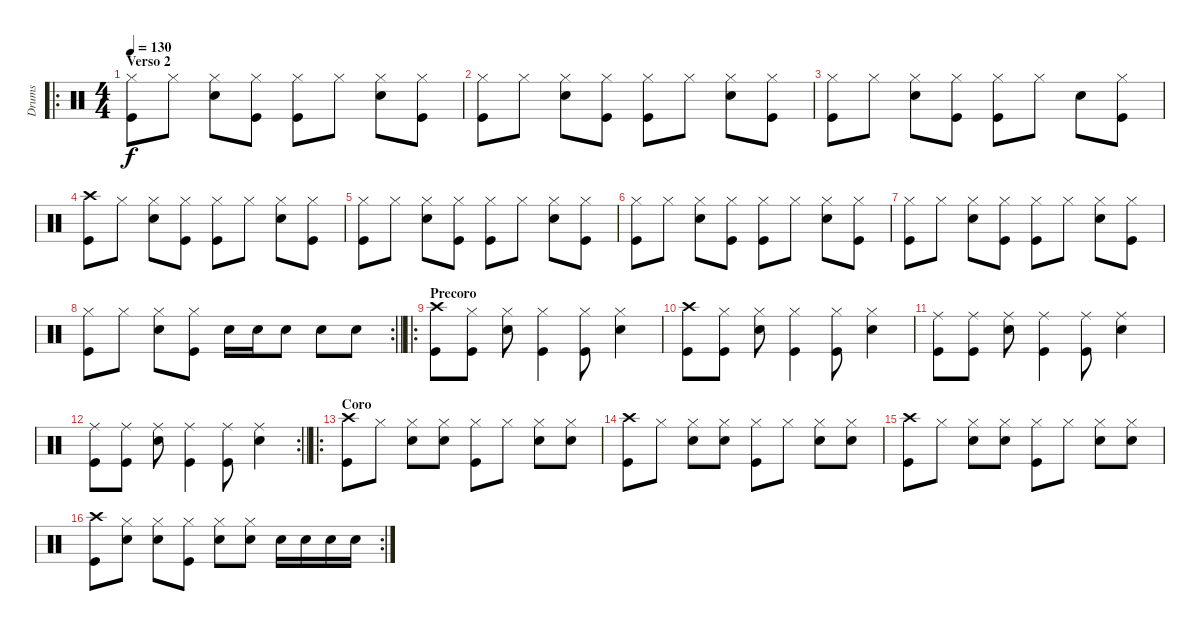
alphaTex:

\track ("Drums" "Drums") {instrument percussion}
\staff {score}
\articulation defaults
\ro
\ts (4 4)
\section ("" "Verso 2")
\tempo 130
\clef neutral
\ks c
("Kick (hit)" "Hi-Hat (closed)").8{dy f} "Hi-Hat (closed)".8 ("Snare (hit) 2" "Hi-Hat (closed)").8 ("Kick (hit)" "Hi-Hat (closed)").8 ("Kick (hit)" "Hi-Hat (closed)").8 "Hi-Hat (closed)".8 ("Snare (hit) 2" "Hi-Hat (closed)").8 ("Kick (hit)" "Hi-Hat (closed)").8 |
("Kick (hit)" "Hi-Hat (closed)").8 "Hi-Hat (closed)".8 ("Snare (hit) 2" "Hi-Hat (closed)").8 ("Kick (hit)" "Hi-Hat (closed)").8 ("Kick (hit)" "Hi-Hat (closed)").8 "Hi-Hat (closed)".8 ("Snare (hit) 2" "Hi-Hat (closed)").8 ("Kick (hit)" "Hi-Hat (closed)").8 |
("Kick (hit)" "Hi-Hat (closed)").8 "Hi-Hat (closed)".8 ("Snare (hit) 2" "Hi-Hat (closed)").8 ("Kick (hit)" "Hi-Hat (closed)").8 ("Kick (hit)" "Hi-Hat (closed)").8 "Hi-Hat (closed)".8 "Snare (hit) 2".8 ("Kick (hit)" "Hi-Hat (closed)").8 |
("Kick (hit)" "Crash high (hit)").8 "Hi-Hat (closed)".8 ("Snare (hit) 2" "Hi-Hat (closed)").8 ("Kick (hit)" "Hi-Hat (closed)").8 ("Kick (hit)" "Hi-Hat (closed)").8 "Hi-Hat (closed)".8 ("Snare (hit) 2" "Hi-Hat (closed)").8 ("Kick (hit)" "Hi-Hat (closed)").8 |
("Kick (hit)" "Hi-Hat (closed)").8 "Hi-Hat (closed)".8 ("Snare (hit) 2" "Hi-Hat (closed)").8 ("Kick (hit)" "Hi-Hat (closed)").8 ("Kick (hit)" "Hi-Hat (closed)").8 "Hi-Hat (closed)".8 ("Snare (hit) 2" "Hi-Hat (closed)").8 ("Kick (hit)" "Hi-Hat (closed)").8 |
("Kick (hit)" "Hi-Hat (closed)").8 "Hi-Hat (closed)".8 ("Snare (hit) 2" "Hi-Hat (closed)").8 ("Kick (hit)" "Hi-Hat (closed)").8 ("Kick (hit)" "Hi-Hat (closed)").8 "Hi-Hat (closed)".8 ("Snare (hit) 2" "Hi-Hat (closed)").8 ("Kick (hit)" "Hi-Hat (closed)").8 |
("Kick (hit)" "Hi-Hat (closed)").8 "Hi-Hat (closed)".8 ("Snare (hit) 2" "Hi-Hat (closed)").8 ("Kick (hit)" "Hi-Hat (closed)").8 ("Kick (hit)" "Hi-Hat (closed)").8 "Hi-Hat (closed)".8 ("Snare (hit) 2" "Hi-Hat (closed)").8 ("Kick (hit)" "Hi-Hat (closed)").8 |
\rc 2
\barLineRight lightlight
("Kick (hit)" "Hi-Hat (closed)").8 "Hi-Hat (closed)".8 ("Snare (hit) 2" "Hi-Hat (closed)").8 ("Kick (hit)" "Hi-Hat (closed)").8 "Snare (hit) 2".16 "Snare (hit) 2".16 "Snare (hit) 2".8 "Snare (hit) 2".8 "Snare (hit) 2".8 |
\ro
\section ("" "Precoro")
("Kick (hit)" "Crash high (hit)").8 ("Kick (hit)" "Hi-Hat (closed)").8 ("Snare (hit) 2" "Hi-Hat (closed)").8 ("Kick (hit)" "Hi-Hat (closed)").4 ("Kick (hit)" "Hi-Hat (closed)").8 ("Snare (hit) 2" "Hi-Hat (closed)").4 |
("Kick (hit)" "Crash high (hit)").8 ("Kick (hit)" "Hi-Hat (closed)").8 ("Snare (hit) 2" "Hi-Hat (closed)").8 ("Kick (hit)" "Hi-Hat (closed)").4 ("Kick (hit)" "Hi-Hat (closed)").8 ("Snare (hit) 2" "Hi-Hat (closed)").4 |
("Kick (hit)" "Ride (middle)").8 ("Kick (hit)" "Ride (middle)").8 ("Snare (hit) 2" "Ride (middle)").8 ("Kick (hit)" "Ride (middle)").4 ("Kick (hit)" "Ride (middle)").8 ("Snare (hit) 2" "Ride (middle)").4 |
\rc 2
\barLineRight lightlight
("Kick (hit)" "Ride (middle)").8 ("Kick (hit)" "Ride (middle)").8 ("Snare (hit) 2" "Ride (middle)").8 ("Kick (hit)" "Ride (middle)").4 ("Kick (hit)" "Ride (middle)").8 ("Snare (hit) 2" "Ride (middle)").4 |
\ro
\section ("" "Coro")
("Kick (hit)" "Crash high (hit)").8 "Hi-Hat (closed)".8 ("Snare (hit) 2" "Hi-Hat (closed)").8 ("Snare (hit) 2" "Hi-Hat (closed)").8 ("Kick (hit)" "Hi-Hat (closed)").8 "Hi-Hat (closed)".8 ("Snare (hit) 2" "Hi-Hat (closed)").8 ("Snare (hit) 2" "Hi-Hat (closed)").8 |
("Kick (hit)" "Crash high (hit)").8 "Hi-Hat (closed)".8 ("Snare (hit) 2" "Hi-Hat (closed)").8 ("Snare (hit) 2" "Hi-Hat (closed)").8 ("Kick (hit)" "Hi-Hat (closed)").8 "Hi-Hat (closed)".8 ("Snare (hit) 2" "Hi-Hat (closed)").8 ("Snare (hit) 2" "Hi-Hat (closed)").8 |
("Kick (hit)" "Crash high (hit)").8 "Hi-Hat (closed)".8 ("Snare (hit) 2" "Hi-Hat (closed)").8 ("Snare (hit) 2" "Hi-Hat (closed)").8 ("Kick (hit)" "Hi-Hat (closed)").8 "Hi-Hat (closed)".8 ("Snare (hit) 2" "Hi-Hat (closed)").8 ("Snare (hit) 2" "Hi-Hat (closed)").8 |
\rc 2
("Kick (hit)" "Crash high (hit)").8 ("Snare (hit) 2" "Hi-Hat (closed)").8 ("Snare (hit) 2" "Hi-Hat (closed)").8 ("Kick (hit)" "Hi-Hat (closed)").8 ("Snare (hit) 2" "Hi-Hat (closed)").8 ("Snare (hit) 2" "Hi-Hat (closed)").8 "Snare (hit) 2".16 "Snare (hit) 2".16 "Snare (hit) 2".16 "Snare (hit) 2".16
